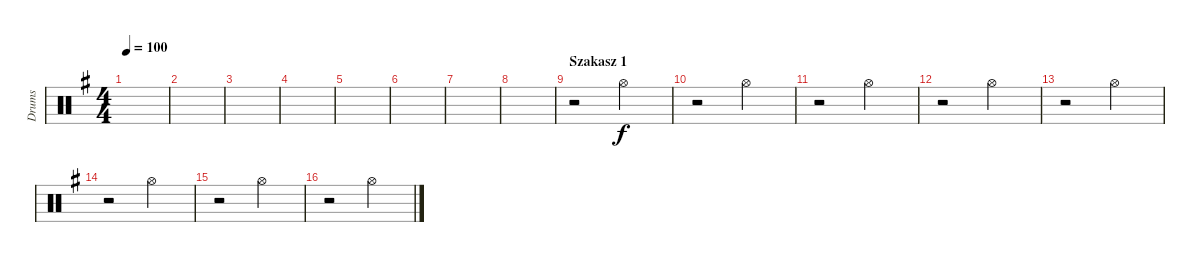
\track ("Drums" "Drums") {instrument percussion}
\staff {score}
\articulation defaults
\ts (4 4)
\tempo 100
\clef neutral
\ks g
|
|
|
|
|
|
|
|
\section ("" "Szakasz 1")
r.2 "Hi-Hat (open)".2 |
r.2 "Hi-Hat (open)".2 |
r.2 "Hi-Hat (open)".2 |
r.2 "Hi-Hat (open)".2 |
r.2 "Hi-Hat (open)".2 |
r.2 "Hi-Hat (open)".2 |
r.2 "Hi-Hat (open)".2 |
r.2 "Hi-Hat (open)".2
